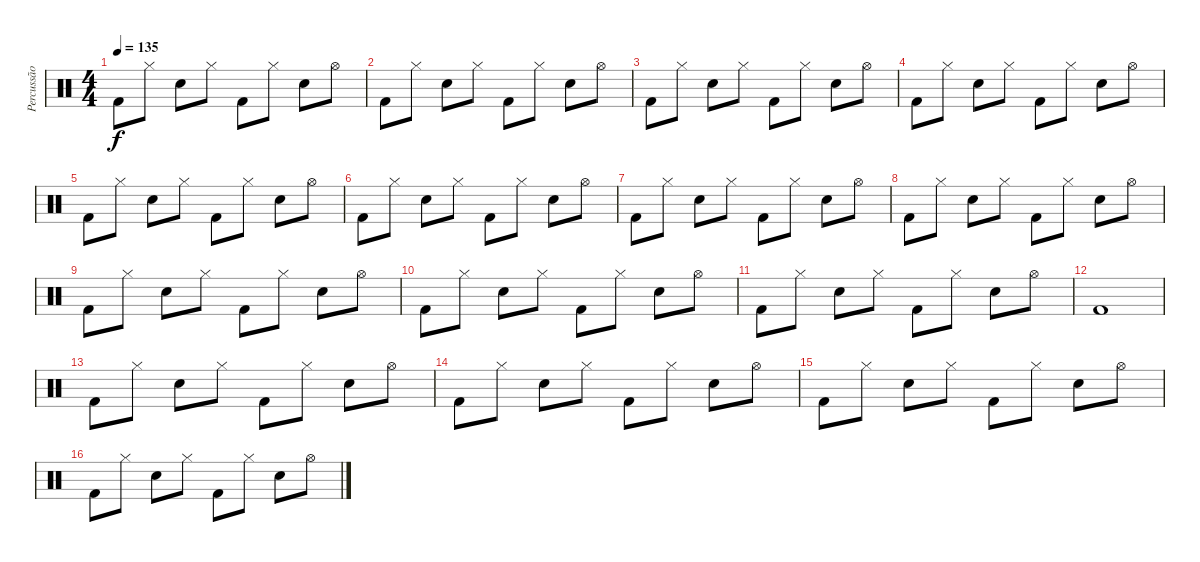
\track ("Percussão" "Percussão") {instrument percussion}
\staff {score}
\articulation defaults
\ts (4 4)
\tempo 135
\clef neutral
\ks c "Kick (hit) 2".8{dy f} "Hi-Hat (closed)".8 "Electric Snare (hit)".8 "Hi-Hat (closed)".8 "Kick (hit) 2".8 "Hi-Hat (closed)".8 "Electric Snare (hit)".8 "Hi-Hat (open)".8
|
"Kick (hit) 2".8 "Hi-Hat (closed)".8 "Electric Snare (hit)".8 "Hi-Hat (closed)".8 "Kick (hit) 2".8 "Hi-Hat (closed)".8 "Electric Snare (hit)".8 "Hi-Hat (open)".8 |
"Kick (hit) 2".8 "Hi-Hat (closed)".8 "Electric Snare (hit)".8 "Hi-Hat (closed)".8 "Kick (hit) 2".8 "Hi-Hat (closed)".8 "Electric Snare (hit)".8 "Hi-Hat (open)".8 |
"Kick (hit) 2".8 "Hi-Hat (closed)".8 "Electric Snare (hit)".8 "Hi-Hat (closed)".8 "Kick (hit) 2".8 "Hi-Hat (closed)".8 "Electric Snare (hit)".8 "Hi-Hat (open)".8 |
"Kick (hit) 2".8 "Hi-Hat (closed)".8 "Electric Snare (hit)".8 "Hi-Hat (closed)".8 "Kick (hit) 2".8 "Hi-Hat (closed)".8 "Electric Snare (hit)".8 "Hi-Hat (open)".8 |
"Kick (hit) 2".8 "Hi-Hat (closed)".8 "Electric Snare (hit)".8 "Hi-Hat (closed)".8 "Kick (hit) 2".8 "Hi-Hat (closed)".8 "Electric Snare (hit)".8 "Hi-Hat (open)".8 |
"Kick (hit) 2".8 "Hi-Hat (closed)".8 "Electric Snare (hit)".8 "Hi-Hat (closed)".8 "Kick (hit) 2".8 "Hi-Hat (closed)".8 "Electric Snare (hit)".8 "Hi-Hat (open)".8 |
"Kick (hit) 2".8 "Hi-Hat (closed)".8 "Electric Snare (hit)".8 "Hi-Hat (closed)".8 "Kick (hit) 2".8 "Hi-Hat (closed)".8 "Electric Snare (hit)".8 "Hi-Hat (open)".8 |
"Kick (hit) 2".8 "Hi-Hat (closed)".8 "Electric Snare (hit)".8 "Hi-Hat (closed)".8 "Kick (hit) 2".8 "Hi-Hat (closed)".8 "Electric Snare (hit)".8 "Hi-Hat (open)".8 |
"Kick (hit) 2".8 "Hi-Hat (closed)".8 "Electric Snare (hit)".8 "Hi-Hat (closed)".8 "Kick (hit) 2".8 "Hi-Hat (closed)".8 "Electric Snare (hit)".8 "Hi-Hat (open)".8 |
"Kick (hit) 2".8 "Hi-Hat (closed)".8 "Electric Snare (hit)".8 "Hi-Hat (closed)".8 "Kick (hit) 2".8 "Hi-Hat (closed)".8 "Electric Snare (hit)".8 "Hi-Hat (open)".8 |
"Kick (hit) 2".1 |
"Kick (hit) 2".8 "Hi-Hat (closed)".8 "Electric Snare (hit)".8 "Hi-Hat (closed)".8 "Kick (hit) 2".8 "Hi-Hat (closed)".8 "Electric Snare (hit)".8 "Hi-Hat (open)".8 |
"Kick (hit) 2".8 "Hi-Hat (closed)".8 "Electric Snare (hit)".8 "Hi-Hat (closed)".8 "Kick (hit) 2".8 "Hi-Hat (closed)".8 "Electric Snare (hit)".8 "Hi-Hat (open)".8 |
"Kick (hit) 2".8 "Hi-Hat (closed)".8 "Electric Snare (hit)".8 "Hi-Hat (closed)".8 "Kick (hit) 2".8 "Hi-Hat (closed)".8 "Electric Snare (hit)".8 "Hi-Hat (open)".8 |
"Kick (hit) 2".8 "Hi-Hat (closed)".8 "Electric Snare (hit)".8 "Hi-Hat (closed)".8 "Kick (hit) 2".8 "Hi-Hat (closed)".8 "Electric Snare (hit)".8 "Hi-Hat (open)".8
